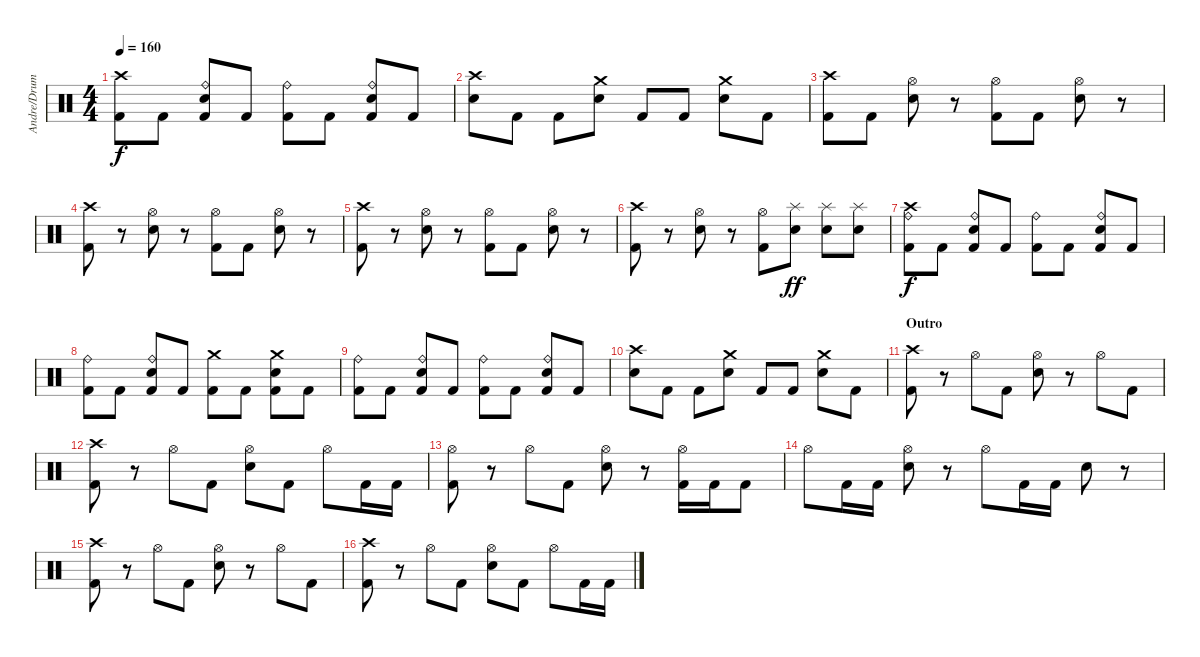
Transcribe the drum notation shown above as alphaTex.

\track ("Andre/Drums" "Andre/Drum") {instrument percussion}
\staff {score}
\articulation defaults
\ts (4 4)
\tempo 160
\clef neutral
\ks c
("Crash high (hit)" "Kick (hit) 2").8{dy f} "Kick (hit) 2".8 ("Ride (bell)" "Snare (hit) 2" "Kick (hit) 2").8 "Kick (hit) 2".8 ("Ride (bell)" "Kick (hit) 2").8 "Kick (hit) 2".8 ("Ride (bell)" "Snare (hit) 2" "Kick (hit) 2").8 "Kick (hit) 2".8 |
("Crash high (hit)" "Snare (hit) 2").8 "Kick (hit) 2".8 "Kick (hit) 2".8 ("Crash medium (hit)" "Snare (hit) 2").8 "Kick (hit) 2".8 "Kick (hit) 2".8 ("Crash medium (hit)" "Snare (hit) 2").8 "Kick (hit) 2".8 |
("Crash high (hit)" "Kick (hit) 2").8 "Kick (hit) 2".8 ("Hi-Hat (open)" "Snare (hit) 2").8 r.8 ("Hi-Hat (open)" "Kick (hit) 2").8 "Kick (hit) 2".8 ("Hi-Hat (open)" "Snare (hit) 2").8 r.8 |
("Crash high (hit)" "Kick (hit) 2").8 r.8 ("Hi-Hat (open)" "Snare (hit) 2").8 r.8 ("Hi-Hat (open)" "Kick (hit) 2").8 "Kick (hit) 2".8 ("Hi-Hat (open)" "Snare (hit) 2").8 r.8 |
("Crash high (hit)" "Kick (hit) 2").8 r.8 ("Hi-Hat (open)" "Snare (hit) 2").8 r.8 ("Hi-Hat (open)" "Kick (hit) 2").8 "Kick (hit) 2".8 ("Hi-Hat (open)" "Snare (hit) 2").8 r.8 |
("Crash high (hit)" "Kick (hit) 2").8 r.8 ("Hi-Hat (open)" "Snare (hit) 2").8 r.8 ("Hi-Hat (open)" "Kick (hit) 2").8 ("Splash (hit)" "Snare (hit) 2").8{dy ff} ("Splash (hit)" "Snare (hit) 2").8 ("Splash (hit)" "Snare (hit) 2").8 |
("Crash high (hit)" "Ride (bell)" "Kick (hit) 2").8{dy f} "Kick (hit) 2".8 ("Ride (bell)" "Snare (hit) 2" "Kick (hit) 2").8 "Kick (hit) 2".8 ("Ride (bell)" "Kick (hit) 2").8 "Kick (hit) 2".8 ("Ride (bell)" "Snare (hit) 2" "Kick (hit) 2").8 "Kick (hit) 2".8 |
("Ride (bell)" "Kick (hit) 2").8 "Kick (hit) 2".8 ("Ride (bell)" "Snare (hit) 2" "Kick (hit) 2").8 "Kick (hit) 2".8 ("Crash medium (hit)" "Kick (hit) 2").8 "Kick (hit) 2".8 ("Crash medium (hit)" "Snare (hit) 2" "Kick (hit) 2").8 "Kick (hit) 2".8 |
("Ride (bell)" "Kick (hit) 2").8 "Kick (hit) 2".8 ("Ride (bell)" "Snare (hit) 2" "Kick (hit) 2").8 "Kick (hit) 2".8 ("Ride (bell)" "Kick (hit) 2").8 "Kick (hit) 2".8 ("Ride (bell)" "Snare (hit) 2" "Kick (hit) 2").8 "Kick (hit) 2".8 |
("Crash high (hit)" "Snare (hit) 2").8 "Kick (hit) 2".8 "Kick (hit) 2".8 ("Crash medium (hit)" "Snare (hit) 2").8 "Kick (hit) 2".8 "Kick (hit) 2".8 ("Crash medium (hit)" "Snare (hit) 2").8 "Kick (hit) 2".8 |
\section ("" "Outro")
("Crash high (hit)" "Kick (hit) 2").8 r.8 "Hi-Hat (open)".8 "Kick (hit) 2".8 ("Hi-Hat (open)" "Snare (hit) 2").8 r.8 "Hi-Hat (open)".8 "Kick (hit) 2".8 |
("Crash high (hit)" "Kick (hit) 2").8 r.8 "Hi-Hat (open)".8 "Kick (hit) 2".8 ("Hi-Hat (open)" "Snare (hit) 2").8 "Kick (hit) 2".8 "Hi-Hat (open)".8 "Kick (hit) 2".16 "Kick (hit) 2".16 |
("Hi-Hat (open)" "Kick (hit) 2").8 r.8 "Hi-Hat (open)".8 "Kick (hit) 2".8 ("Hi-Hat (open)" "Snare (hit) 2").8 r.8 ("Hi-Hat (open)" "Kick (hit) 2").16 "Kick (hit) 2".16 "Kick (hit) 2".8 |
"Hi-Hat (open)".8 "Kick (hit) 2".16 "Kick (hit) 2".16 ("Hi-Hat (open)" "Snare (hit) 2").8 r.8 "Hi-Hat (open)".8 "Kick (hit) 2".16 "Kick (hit) 2".16 "Snare (hit) 2".8 r.8 |
("Crash high (hit)" "Kick (hit) 2").8 r.8 "Hi-Hat (open)".8 "Kick (hit) 2".8 ("Hi-Hat (open)" "Snare (hit) 2").8 r.8 "Hi-Hat (open)".8 "Kick (hit) 2".8 |
("Crash high (hit)" "Kick (hit) 2").8 r.8 "Hi-Hat (open)".8 "Kick (hit) 2".8 ("Hi-Hat (open)" "Snare (hit) 2").8 "Kick (hit) 2".8 "Hi-Hat (open)".8 "Kick (hit) 2".16 "Kick (hit) 2".16
